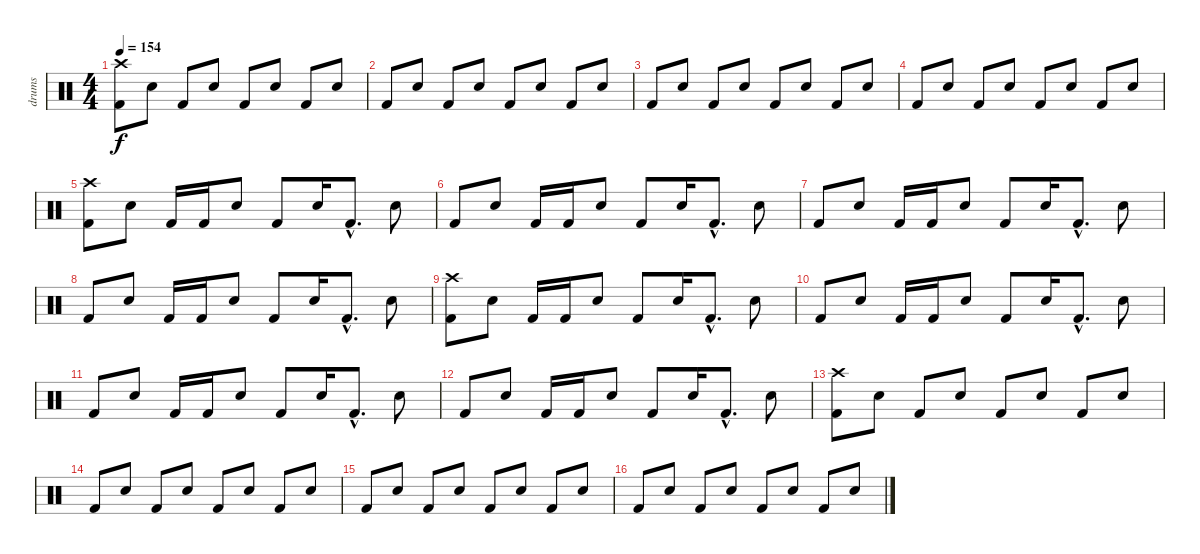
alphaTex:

\track ("drums" "drums") {instrument percussion}
\staff {score}
\articulation defaults
\ts (4 4)
\tempo 154
\clef neutral
\ks c
("Crash high (hit)" "Kick (hit) 2").8{dy f} "Snare (hit) 2".8 "Kick (hit) 2".8 "Snare (hit) 2".8 "Kick (hit) 2".8 "Snare (hit) 2".8 "Kick (hit) 2".8 "Snare (hit) 2".8 |
"Kick (hit) 2".8 "Snare (hit) 2".8 "Kick (hit) 2".8 "Snare (hit) 2".8 "Kick (hit) 2".8 "Snare (hit) 2".8 "Kick (hit) 2".8 "Snare (hit) 2".8 |
"Kick (hit) 2".8 "Snare (hit) 2".8 "Kick (hit) 2".8 "Snare (hit) 2".8 "Kick (hit) 2".8 "Snare (hit) 2".8 "Kick (hit) 2".8 "Snare (hit) 2".8 |
"Kick (hit) 2".8 "Snare (hit) 2".8 "Kick (hit) 2".8 "Snare (hit) 2".8 "Kick (hit) 2".8 "Snare (hit) 2".8 "Kick (hit) 2".8 "Snare (hit) 2".8 |
("Crash high (hit)" "Kick (hit) 2").8 "Snare (hit) 2".8 "Kick (hit) 2".16 "Kick (hit) 2".16 "Snare (hit) 2".8 "Kick (hit) 2".8 "Snare (hit) 2".16 "Kick (hit) 2"{hac}.8{d} "Snare (hit) 2".8 |
"Kick (hit) 2".8 "Snare (hit) 2".8 "Kick (hit) 2".16 "Kick (hit) 2".16 "Snare (hit) 2".8 "Kick (hit) 2".8 "Snare (hit) 2".16 "Kick (hit) 2"{hac}.8{d} "Snare (hit) 2".8 |
"Kick (hit) 2".8 "Snare (hit) 2".8 "Kick (hit) 2".16 "Kick (hit) 2".16 "Snare (hit) 2".8 "Kick (hit) 2".8 "Snare (hit) 2".16 "Kick (hit) 2"{hac}.8{d} "Snare (hit) 2".8 |
"Kick (hit) 2".8 "Snare (hit) 2".8 "Kick (hit) 2".16 "Kick (hit) 2".16 "Snare (hit) 2".8 "Kick (hit) 2".8 "Snare (hit) 2".16 "Kick (hit) 2"{hac}.8{d} "Snare (hit) 2".8 |
("Crash high (hit)" "Kick (hit) 2").8 "Snare (hit) 2".8 "Kick (hit) 2".16 "Kick (hit) 2".16 "Snare (hit) 2".8 "Kick (hit) 2".8 "Snare (hit) 2".16 "Kick (hit) 2"{hac}.8{d} "Snare (hit) 2".8 |
"Kick (hit) 2".8 "Snare (hit) 2".8 "Kick (hit) 2".16 "Kick (hit) 2".16 "Snare (hit) 2".8 "Kick (hit) 2".8 "Snare (hit) 2".16 "Kick (hit) 2"{hac}.8{d} "Snare (hit) 2".8 |
"Kick (hit) 2".8 "Snare (hit) 2".8 "Kick (hit) 2".16 "Kick (hit) 2".16 "Snare (hit) 2".8 "Kick (hit) 2".8 "Snare (hit) 2".16 "Kick (hit) 2"{hac}.8{d} "Snare (hit) 2".8 |
"Kick (hit) 2".8 "Snare (hit) 2".8 "Kick (hit) 2".16 "Kick (hit) 2".16 "Snare (hit) 2".8 "Kick (hit) 2".8 "Snare (hit) 2".16 "Kick (hit) 2"{hac}.8{d} "Snare (hit) 2".8 |
("Crash high (hit)" "Kick (hit) 2").8 "Snare (hit) 2".8 "Kick (hit) 2".8 "Snare (hit) 2".8 "Kick (hit) 2".8 "Snare (hit) 2".8 "Kick (hit) 2".8 "Snare (hit) 2".8 |
"Kick (hit) 2".8 "Snare (hit) 2".8 "Kick (hit) 2".8 "Snare (hit) 2".8 "Kick (hit) 2".8 "Snare (hit) 2".8 "Kick (hit) 2".8 "Snare (hit) 2".8 |
"Kick (hit) 2".8 "Snare (hit) 2".8 "Kick (hit) 2".8 "Snare (hit) 2".8 "Kick (hit) 2".8 "Snare (hit) 2".8 "Kick (hit) 2".8 "Snare (hit) 2".8 |
"Kick (hit) 2".8 "Snare (hit) 2".8 "Kick (hit) 2".8 "Snare (hit) 2".8 "Kick (hit) 2".8 "Snare (hit) 2".8 "Kick (hit) 2".8 "Snare (hit) 2".8
